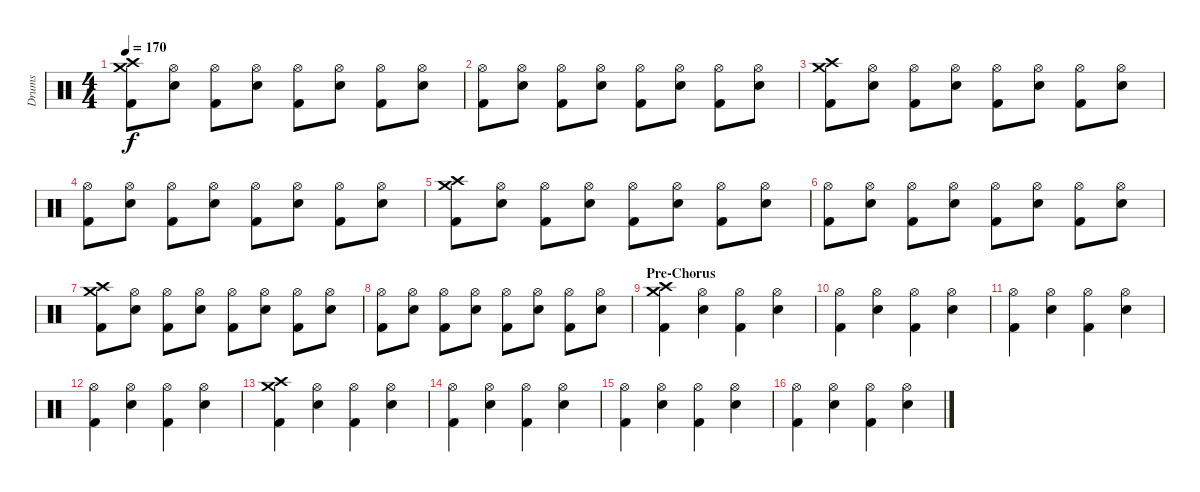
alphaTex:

\track ("Drums" "Drums") {instrument percussion}
\staff {score}
\articulation defaults
\ts (4 4)
\tempo 170
\clef neutral
\ks c
("Crash medium (hit)" "Crash high (hit)" "Kick (hit) 2").8{dy f} ("Hi-Hat (open)" "Snare (hit) 2").8 ("Hi-Hat (open)" "Kick (hit) 2").8 ("Hi-Hat (open)" "Snare (hit) 2").8 ("Hi-Hat (open)" "Kick (hit) 2").8 ("Hi-Hat (open)" "Snare (hit) 2").8 ("Hi-Hat (open)" "Kick (hit) 2").8 ("Hi-Hat (open)" "Snare (hit) 2").8 |
("Hi-Hat (open)" "Kick (hit) 2").8 ("Hi-Hat (open)" "Snare (hit) 2").8 ("Hi-Hat (open)" "Kick (hit) 2").8 ("Hi-Hat (open)" "Snare (hit) 2").8 ("Hi-Hat (open)" "Kick (hit) 2").8 ("Hi-Hat (open)" "Snare (hit) 2").8 ("Hi-Hat (open)" "Kick (hit) 2").8 ("Hi-Hat (open)" "Snare (hit) 2").8 |
("Crash medium (hit)" "Crash high (hit)" "Kick (hit) 2").8 ("Hi-Hat (open)" "Snare (hit) 2").8 ("Hi-Hat (open)" "Kick (hit) 2").8 ("Hi-Hat (open)" "Snare (hit) 2").8 ("Hi-Hat (open)" "Kick (hit) 2").8 ("Hi-Hat (open)" "Snare (hit) 2").8 ("Hi-Hat (open)" "Kick (hit) 2").8 ("Hi-Hat (open)" "Snare (hit) 2").8 |
("Hi-Hat (open)" "Kick (hit) 2").8 ("Hi-Hat (open)" "Snare (hit) 2").8 ("Hi-Hat (open)" "Kick (hit) 2").8 ("Hi-Hat (open)" "Snare (hit) 2").8 ("Hi-Hat (open)" "Kick (hit) 2").8 ("Hi-Hat (open)" "Snare (hit) 2").8 ("Hi-Hat (open)" "Kick (hit) 2").8 ("Hi-Hat (open)" "Snare (hit) 2").8 |
("Crash medium (hit)" "Crash high (hit)" "Kick (hit) 2").8 ("Hi-Hat (open)" "Snare (hit) 2").8 ("Hi-Hat (open)" "Kick (hit) 2").8 ("Hi-Hat (open)" "Snare (hit) 2").8 ("Hi-Hat (open)" "Kick (hit) 2").8 ("Hi-Hat (open)" "Snare (hit) 2").8 ("Hi-Hat (open)" "Kick (hit) 2").8 ("Hi-Hat (open)" "Snare (hit) 2").8 |
("Hi-Hat (open)" "Kick (hit) 2").8 ("Hi-Hat (open)" "Snare (hit) 2").8 ("Hi-Hat (open)" "Kick (hit) 2").8 ("Hi-Hat (open)" "Snare (hit) 2").8 ("Hi-Hat (open)" "Kick (hit) 2").8 ("Hi-Hat (open)" "Snare (hit) 2").8 ("Hi-Hat (open)" "Kick (hit) 2").8 ("Hi-Hat (open)" "Snare (hit) 2").8 |
("Crash medium (hit)" "Crash high (hit)" "Kick (hit) 2").8 ("Hi-Hat (open)" "Snare (hit) 2").8 ("Hi-Hat (open)" "Kick (hit) 2").8 ("Hi-Hat (open)" "Snare (hit) 2").8 ("Hi-Hat (open)" "Kick (hit) 2").8 ("Hi-Hat (open)" "Snare (hit) 2").8 ("Hi-Hat (open)" "Kick (hit) 2").8 ("Hi-Hat (open)" "Snare (hit) 2").8 |
("Hi-Hat (open)" "Kick (hit) 2").8 ("Hi-Hat (open)" "Snare (hit) 2").8 ("Hi-Hat (open)" "Kick (hit) 2").8 ("Hi-Hat (open)" "Snare (hit) 2").8 ("Hi-Hat (open)" "Kick (hit) 2").8 ("Hi-Hat (open)" "Snare (hit) 2").8 ("Hi-Hat (open)" "Kick (hit) 2").8 ("Hi-Hat (open)" "Snare (hit) 2").8 |
\section ("" "Pre-Chorus")
("Crash high (hit)" "Crash medium (hit)" "Kick (hit) 2").4 ("Hi-Hat (open)" "Snare (hit) 2").4 ("Hi-Hat (open)" "Kick (hit) 2").4 ("Hi-Hat (open)" "Snare (hit) 2").4 |
("Hi-Hat (open)" "Kick (hit) 2").4 ("Hi-Hat (open)" "Snare (hit) 2").4 ("Hi-Hat (open)" "Kick (hit) 2").4 ("Hi-Hat (open)" "Snare (hit) 2").4 |
("Hi-Hat (open)" "Kick (hit) 2").4 ("Hi-Hat (open)" "Snare (hit) 2").4 ("Hi-Hat (open)" "Kick (hit) 2").4 ("Hi-Hat (open)" "Snare (hit) 2").4 |
("Hi-Hat (open)" "Kick (hit) 2").4 ("Hi-Hat (open)" "Snare (hit) 2").4 ("Hi-Hat (open)" "Kick (hit) 2").4 ("Hi-Hat (open)" "Snare (hit) 2").4 |
("Crash high (hit)" "Crash medium (hit)" "Kick (hit) 2").4 ("Hi-Hat (open)" "Snare (hit) 2").4 ("Hi-Hat (open)" "Kick (hit) 2").4 ("Hi-Hat (open)" "Snare (hit) 2").4 |
("Hi-Hat (open)" "Kick (hit) 2").4 ("Hi-Hat (open)" "Snare (hit) 2").4 ("Hi-Hat (open)" "Kick (hit) 2").4 ("Hi-Hat (open)" "Snare (hit) 2").4 |
("Hi-Hat (open)" "Kick (hit) 2").4 ("Hi-Hat (open)" "Snare (hit) 2").4 ("Hi-Hat (open)" "Kick (hit) 2").4 ("Hi-Hat (open)" "Snare (hit) 2").4 |
("Hi-Hat (open)" "Kick (hit) 2").4 ("Hi-Hat (open)" "Snare (hit) 2").4 ("Hi-Hat (open)" "Kick (hit) 2").4 ("Hi-Hat (open)" "Snare (hit) 2").4
